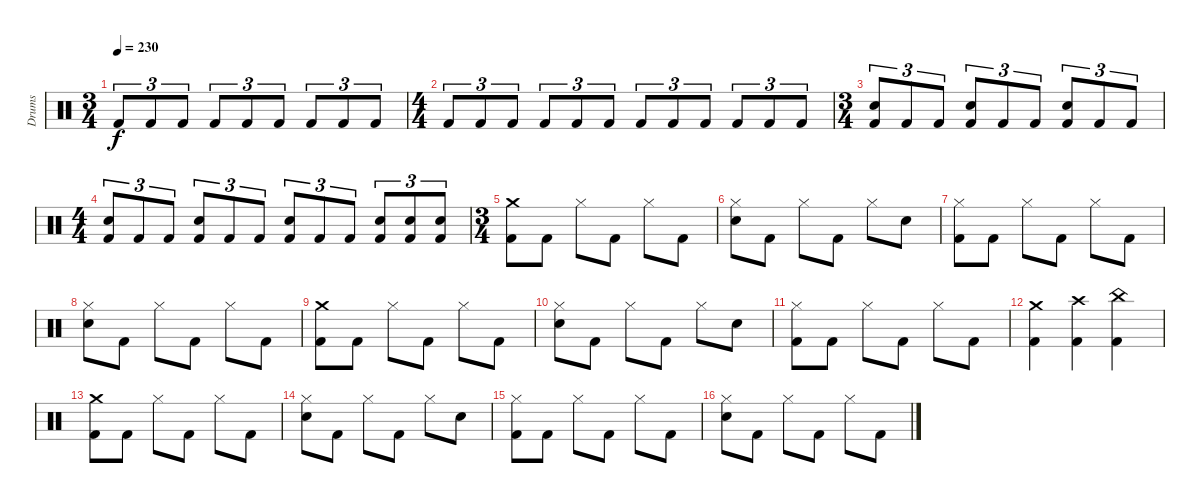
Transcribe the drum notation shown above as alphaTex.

\track ("Drums" "Drums") {instrument percussion}
\staff {score}
\articulation defaults
\ts (3 4)
\tempo 230
\clef neutral
\ks c "Kick (hit) 2".8{tu (3 2) dy f} "Kick (hit) 2".8{tu (3 2)} "Kick (hit) 2".8{tu (3 2)} "Kick (hit) 2".8{tu (3 2)} "Kick (hit) 2".8{tu (3 2)} "Kick (hit) 2".8{tu (3 2)} "Kick (hit) 2".8{tu (3 2)} "Kick (hit) 2".8{tu (3 2)} "Kick (hit) 2".8{tu (3 2)}
|
\ts (4 4)
"Kick (hit) 2".8{tu (3 2)} "Kick (hit) 2".8{tu (3 2)} "Kick (hit) 2".8{tu (3 2)} "Kick (hit) 2".8{tu (3 2)} "Kick (hit) 2".8{tu (3 2)} "Kick (hit) 2".8{tu (3 2)} "Kick (hit) 2".8{tu (3 2)} "Kick (hit) 2".8{tu (3 2)} "Kick (hit) 2".8{tu (3 2)} "Kick (hit) 2".8{tu (3 2)} "Kick (hit) 2".8{tu (3 2)} "Kick (hit) 2".8{tu (3 2)} |
\ts (3 4)
("Kick (hit) 2" "Snare (hit) 2").8{tu (3 2)} "Kick (hit) 2".8{tu (3 2)} "Kick (hit) 2".8{tu (3 2)} ("Kick (hit) 2" "Snare (hit) 2").8{tu (3 2)} "Kick (hit) 2".8{tu (3 2)} "Kick (hit) 2".8{tu (3 2)} ("Kick (hit) 2" "Snare (hit) 2").8{tu (3 2)} "Kick (hit) 2".8{tu (3 2)} "Kick (hit) 2".8{tu (3 2)} |
\ts (4 4)
("Kick (hit) 2" "Snare (hit) 2").8{tu (3 2)} "Kick (hit) 2".8{tu (3 2)} "Kick (hit) 2".8{tu (3 2)} ("Kick (hit) 2" "Snare (hit) 2").8{tu (3 2)} "Kick (hit) 2".8{tu (3 2)} "Kick (hit) 2".8{tu (3 2)} ("Kick (hit) 2" "Snare (hit) 2").8{tu (3 2)} "Kick (hit) 2".8{tu (3 2)} "Kick (hit) 2".8{tu (3 2)} ("Kick (hit) 2" "Snare (hit) 2").8{tu (3 2)} ("Kick (hit) 2" "Snare (hit) 2").8{tu (3 2)} ("Kick (hit) 2" "Snare (hit) 2").8{tu (3 2)} |
\ts (3 4)
("Kick (hit) 2" "Crash medium (hit)").8 "Kick (hit) 2".8 "Hi-Hat (closed)".8 "Kick (hit) 2".8 "Hi-Hat (closed)".8 "Kick (hit) 2".8 |
("Snare (hit) 2" "Hi-Hat (closed)").8 "Kick (hit) 2".8 "Hi-Hat (closed)".8 "Kick (hit) 2".8 "Hi-Hat (closed)".8 "Snare (hit) 2".8 |
("Kick (hit) 2" "Hi-Hat (closed)").8 "Kick (hit) 2".8 "Hi-Hat (closed)".8 "Kick (hit) 2".8 "Hi-Hat (closed)".8 "Kick (hit) 2".8 |
("Snare (hit) 2" "Hi-Hat (closed)").8 "Kick (hit) 2".8 "Hi-Hat (closed)".8 "Kick (hit) 2".8 "Hi-Hat (closed)".8 "Kick (hit) 2".8 |
("Kick (hit) 2" "Crash medium (hit)").8 "Kick (hit) 2".8 "Hi-Hat (closed)".8 "Kick (hit) 2".8 "Hi-Hat (closed)".8 "Kick (hit) 2".8 |
("Snare (hit) 2" "Hi-Hat (closed)").8 "Kick (hit) 2".8 "Hi-Hat (closed)".8 "Kick (hit) 2".8 "Hi-Hat (closed)".8 "Snare (hit) 2".8 |
("Kick (hit) 2" "Hi-Hat (closed)").8 "Kick (hit) 2".8 "Hi-Hat (closed)".8 "Kick (hit) 2".8 "Hi-Hat (closed)".8 "Kick (hit) 2".8 |
("Kick (hit) 2" "Crash medium (hit)").4 ("Kick (hit) 2" "Crash high (hit)").4 ("Kick (hit) 2" "China (hit)").4 |
("Kick (hit) 2" "Crash medium (hit)").8 "Kick (hit) 2".8 "Hi-Hat (closed)".8 "Kick (hit) 2".8 "Hi-Hat (closed)".8 "Kick (hit) 2".8 |
("Snare (hit) 2" "Hi-Hat (closed)").8 "Kick (hit) 2".8 "Hi-Hat (closed)".8 "Kick (hit) 2".8 "Hi-Hat (closed)".8 "Snare (hit) 2".8 |
("Kick (hit) 2" "Hi-Hat (closed)").8 "Kick (hit) 2".8 "Hi-Hat (closed)".8 "Kick (hit) 2".8 "Hi-Hat (closed)".8 "Kick (hit) 2".8 |
("Snare (hit) 2" "Hi-Hat (closed)").8 "Kick (hit) 2".8 "Hi-Hat (closed)".8 "Kick (hit) 2".8 "Hi-Hat (closed)".8 "Kick (hit) 2".8
